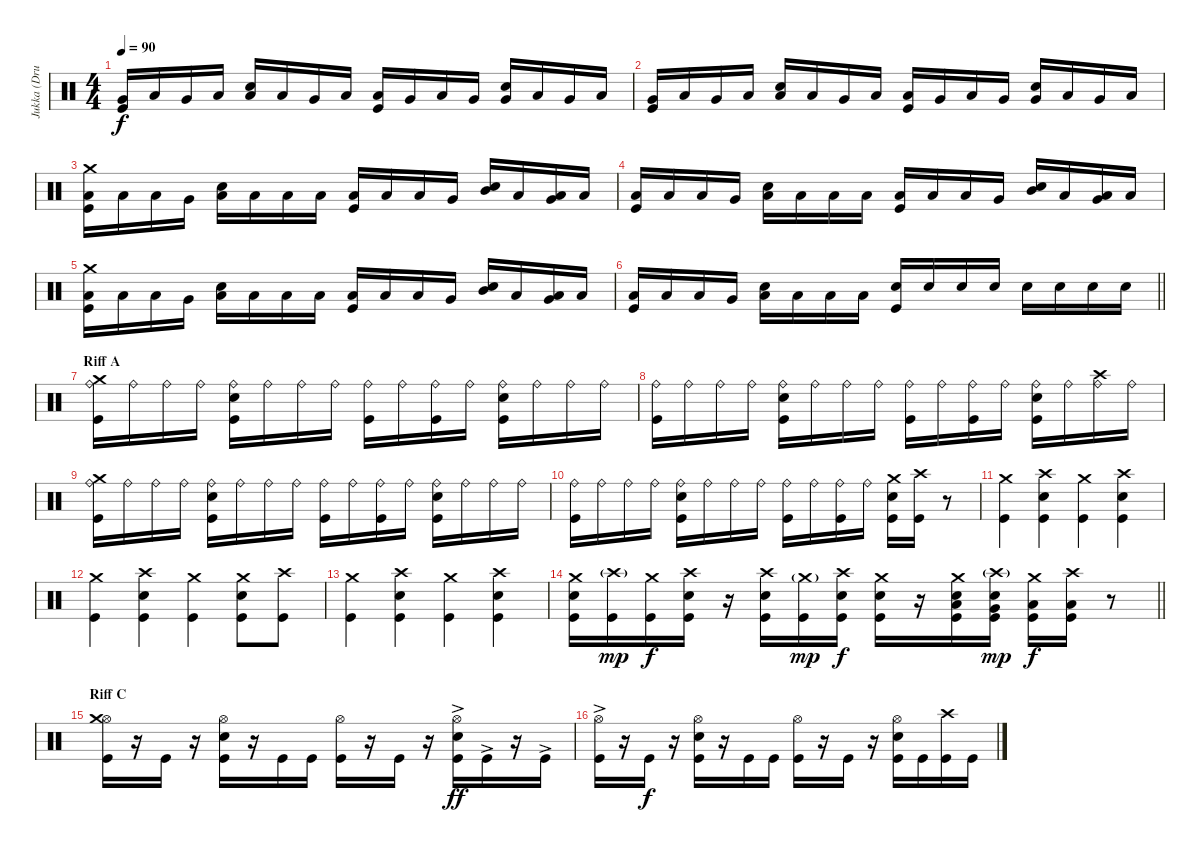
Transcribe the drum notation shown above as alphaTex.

\track ("Jukka (Drums)" "Jukka (Dru") {instrument percussion}
\staff {score}
\articulation defaults
\ts (4 4)
\tempo 90
\clef neutral
\ks c
("Very Low Tom (hit)" "Kick (hit)").16{dy f} "Low Floor Tom (hit)".16 "Very Low Tom (hit)".16 "Low Floor Tom (hit)".16 ("Low Tom (hit)" "Snare (hit) 2").16 "Low Floor Tom (hit)".16 "Very Low Tom (hit)".16 "Low Floor Tom (hit)".16 ("Low Tom (hit)" "Kick (hit)").16 "Very Low Tom (hit)".16 "Low Floor Tom (hit)".16 "Very Low Tom (hit)".16 ("Very Low Tom (hit)" "Snare (hit) 2").16 "Low Tom (hit)".16 "Very Low Tom (hit)".16 "Low Floor Tom (hit)".16 |
("Very Low Tom (hit)" "Kick (hit)").16 "Low Floor Tom (hit)".16 "Very Low Tom (hit)".16 "Low Floor Tom (hit)".16 ("Low Tom (hit)" "Snare (hit) 2").16 "Low Floor Tom (hit)".16 "Very Low Tom (hit)".16 "Low Floor Tom (hit)".16 ("Low Tom (hit)" "Kick (hit)").16 "Very Low Tom (hit)".16 "Low Floor Tom (hit)".16 "Very Low Tom (hit)".16 ("Very Low Tom (hit)" "Snare (hit) 2").16 "Low Tom (hit)".16 "Very Low Tom (hit)".16 "Low Floor Tom (hit)".16 |
("Crash medium (hit)" "Low Floor Tom (hit)" "Kick (hit)").16 "Low Floor Tom (hit)".16 "Low Floor Tom (hit)".16 "Very Low Tom (hit)".16 ("Low Tom (hit)" "Snare (hit) 2").16 "Low Floor Tom (hit)".16 "Low Floor Tom (hit)".16 "Low Floor Tom (hit)".16 ("Low Tom (hit)" "Kick (hit)").16 "Low Floor Tom (hit)".16 "Low Floor Tom (hit)".16 "Very Low Tom (hit)".16 ("Mid Tom (hit)" "Snare (hit) 2").16 "Low Floor Tom (hit)".16 ("Low Tom (hit)" "Very Low Tom (hit)").16 "Low Floor Tom (hit)".16 |
("Low Floor Tom (hit)" "Kick (hit)").16 "Low Floor Tom (hit)".16 "Low Floor Tom (hit)".16 "Very Low Tom (hit)".16 ("Low Tom (hit)" "Snare (hit) 2").16 "Low Floor Tom (hit)".16 "Low Floor Tom (hit)".16 "Low Floor Tom (hit)".16 ("Low Tom (hit)" "Kick (hit)").16 "Low Floor Tom (hit)".16 "Low Floor Tom (hit)".16 "Very Low Tom (hit)".16 ("Mid Tom (hit)" "Snare (hit) 2").16 "Low Floor Tom (hit)".16 ("Low Tom (hit)" "Very Low Tom (hit)").16 "Low Floor Tom (hit)".16 |
("Crash medium (hit)" "Low Floor Tom (hit)" "Kick (hit)").16 "Low Floor Tom (hit)".16 "Low Floor Tom (hit)".16 "Very Low Tom (hit)".16 ("Low Tom (hit)" "Snare (hit) 2").16 "Low Floor Tom (hit)".16 "Low Floor Tom (hit)".16 "Low Floor Tom (hit)".16 ("Low Tom (hit)" "Kick (hit)").16 "Low Floor Tom (hit)".16 "Low Floor Tom (hit)".16 "Very Low Tom (hit)".16 ("Mid Tom (hit)" "Snare (hit) 2").16 "Low Floor Tom (hit)".16 ("Low Tom (hit)" "Very Low Tom (hit)").16 "Low Floor Tom (hit)".16 |
\barLineRight lightlight
("Low Floor Tom (hit)" "Kick (hit)").16 "Low Floor Tom (hit)".16 "Low Floor Tom (hit)".16 "Very Low Tom (hit)".16 ("Low Tom (hit)" "Snare (hit) 2").16 "Low Floor Tom (hit)".16 "Low Floor Tom (hit)".16 "Low Floor Tom (hit)".16 ("Snare (hit) 2" "Kick (hit)").16 "Snare (hit) 2".16 "Snare (hit) 2".16 "Snare (hit) 2".16 "Snare (hit) 2".16 "Snare (hit) 2".16 "Snare (hit) 2".16 "Snare (hit) 2".16 |
\section ("" "Riff A")
("Ride (bell)" "Crash medium (hit)" "Kick (hit)").16 "Ride (bell)".16 "Ride (bell)".16 "Ride (bell)".16 ("Ride (bell)" "Snare (hit) 2" "Kick (hit)").16 "Ride (bell)".16 "Ride (bell)".16 "Ride (bell)".16 ("Ride (bell)" "Kick (hit)").16 "Ride (bell)".16 ("Ride (bell)" "Kick (hit)").16 "Ride (bell)".16 ("Ride (bell)" "Snare (hit) 2" "Kick (hit)").16 "Ride (bell)".16 "Ride (bell)".16 "Ride (bell)".16 |
("Ride (bell)" "Kick (hit)").16 "Ride (bell)".16 "Ride (bell)".16 "Ride (bell)".16 ("Ride (bell)" "Snare (hit) 2" "Kick (hit)").16 "Ride (bell)".16 "Ride (bell)".16 "Ride (bell)".16 ("Ride (bell)" "Kick (hit)").16 "Ride (bell)".16 ("Ride (bell)" "Kick (hit)").16 "Ride (bell)".16 ("Ride (bell)" "Snare (hit) 2" "Kick (hit)").16 "Ride (bell)".16 ("Ride (bell)" "Crash high (hit)").16 "Ride (bell)".16 |
("Ride (bell)" "Crash medium (hit)" "Kick (hit)").16 "Ride (bell)".16 "Ride (bell)".16 "Ride (bell)".16 ("Ride (bell)" "Snare (hit) 2" "Kick (hit)").16 "Ride (bell)".16 "Ride (bell)".16 "Ride (bell)".16 ("Ride (bell)" "Kick (hit)").16 "Ride (bell)".16 ("Ride (bell)" "Kick (hit)").16 "Ride (bell)".16 ("Ride (bell)" "Snare (hit) 2" "Kick (hit)").16 "Ride (bell)".16 "Ride (bell)".16 "Ride (bell)".16 |
("Ride (bell)" "Kick (hit)").16 "Ride (bell)".16 "Ride (bell)".16 "Ride (bell)".16 ("Ride (bell)" "Snare (hit) 2" "Kick (hit)").16 "Ride (bell)".16 "Ride (bell)".16 "Ride (bell)".16 ("Ride (bell)" "Kick (hit)").16 "Ride (bell)".16 ("Ride (bell)" "Kick (hit)").16 "Ride (bell)".16 ("Crash medium (hit)" "Snare (hit) 2" "Kick (hit)").16 ("Crash high (hit)" "Kick (hit)").16 r.8 |
("Crash medium (hit)" "Kick (hit)").4 ("Crash high (hit)" "Snare (hit) 2" "Kick (hit)").4 ("Crash medium (hit)" "Kick (hit)").4 ("Crash high (hit)" "Snare (hit) 2" "Kick (hit)").4 |
("Crash medium (hit)" "Kick (hit)").4 ("Crash high (hit)" "Snare (hit) 2" "Kick (hit)").4 ("Crash medium (hit)" "Kick (hit)").4 ("Crash medium (hit)" "Snare (hit) 2" "Kick (hit)").8 ("Crash high (hit)" "Kick (hit)").8 |
("Crash medium (hit)" "Kick (hit)").4 ("Crash high (hit)" "Snare (hit) 2" "Kick (hit)").4 ("Crash medium (hit)" "Kick (hit)").4 ("Crash high (hit)" "Snare (hit) 2" "Kick (hit)").4 |
\barLineRight lightlight
("Crash medium (hit)" "Snare (hit) 2" "Kick (hit)").16 ("Crash high (hit)"{g} "Kick (hit)").16{dy mp} ("Crash medium (hit)" "Kick (hit)").16{dy f} ("Crash high (hit)" "Snare (hit) 2" "Kick (hit)").16 r.16 ("Crash high (hit)" "Snare (hit) 2" "Kick (hit)").16 ("Crash medium (hit)"{g} "Kick (hit)").16{dy mp} ("Crash high (hit)" "Snare (hit) 2" "Kick (hit)").16{dy f} ("Crash medium (hit)" "Snare (hit) 2" "Kick (hit)").16 r.16 ("Crash medium (hit)" "Low Tom (hit)" "Snare (hit) 2" "Kick (hit)").16 ("Crash high (hit)"{g} "Very Low Tom (hit)" "Snare (hit) 2" "Kick (hit)").16{dy mp} ("Crash medium (hit)" "Low Floor Tom (hit)" "Kick (hit)").16{dy f} ("Crash high (hit)" "Low Floor Tom (hit)" "Kick (hit)").16 r.8 |
\section ("" "Riff C")
("Hi-Hat (open)" "Crash medium (hit)" "Kick (hit)").16 r.16 "Kick (hit)".16 r.16 ("Hi-Hat (open)" "Snare (hit) 2" "Kick (hit)").16 r.16 "Kick (hit)".16 "Kick (hit)".16 ("Hi-Hat (open)" "Kick (hit)").16 r.16 "Kick (hit)".16 r.16 ("Hi-Hat (open)" "Snare (hit) 2" "Kick (hit)"{ac}).16{dy ff} "Kick (hit)"{ac}.16 r.16 "Kick (hit)"{ac}.16 |
("Hi-Hat (open)" "Kick (hit)"{ac}).16 r.16 "Kick (hit)".16{dy f} r.16 ("Hi-Hat (open)" "Snare (hit) 2" "Kick (hit)").16 r.16 "Kick (hit)".16 "Kick (hit)".16 ("Hi-Hat (open)" "Kick (hit)").16 r.16 "Kick (hit)".16 r.16 ("Hi-Hat (open)" "Snare (hit) 2" "Kick (hit)").16 "Kick (hit)".16 ("Crash high (hit)" "Kick (hit)").16 "Kick (hit)".16
